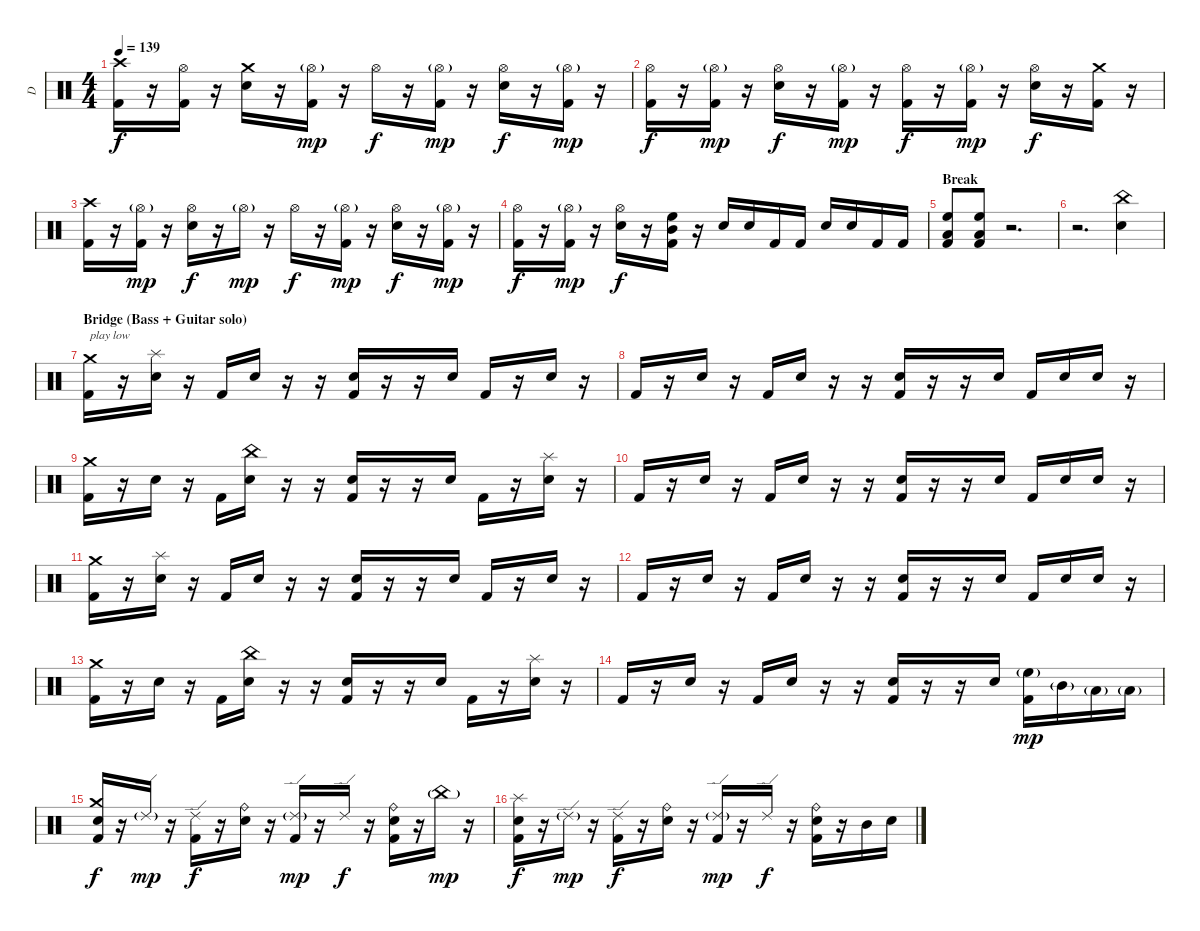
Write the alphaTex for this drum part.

\track ("D" "D") {instrument percussion}
\staff {score}
\articulation defaults
\ts (4 4)
\tempo 139
\clef neutral
\ks c
("Crash high (hit)" "Kick (hit) 2").16{dy f} r.16 ("Hi-Hat (open)" "Kick (hit) 2").16 r.16 ("Crash medium (hit)" "Electric Snare (hit)").16 r.16 ("Hi-Hat (open)"{g} "Kick (hit) 2").16{dy mp} r.16 "Hi-Hat (open)".16{dy f} r.16 ("Hi-Hat (open)"{g} "Kick (hit) 2").16{dy mp} r.16 ("Hi-Hat (open)" "Electric Snare (hit)").16{dy f} r.16 ("Hi-Hat (open)"{g} "Kick (hit) 2").16{dy mp} r.16 |
("Hi-Hat (open)" "Kick (hit) 2").16{dy f} r.16 ("Hi-Hat (open)"{g} "Kick (hit) 2").16{dy mp} r.16 ("Hi-Hat (open)" "Electric Snare (hit)").16{dy f} r.16 ("Hi-Hat (open)"{g} "Kick (hit) 2").16{dy mp} r.16 ("Hi-Hat (open)" "Kick (hit) 2").16{dy f} r.16 ("Hi-Hat (open)"{g} "Kick (hit) 2").16{dy mp} r.16 ("Hi-Hat (open)" "Electric Snare (hit)").16{dy f} r.16 ("Crash medium (hit)" "Kick (hit) 2").16 r.16 |
("Crash high (hit)" "Kick (hit) 2").16 r.16 ("Hi-Hat (open)"{g} "Kick (hit) 2").16{dy mp} r.16 ("Hi-Hat (open)" "Electric Snare (hit)").16{dy f} r.16 "Hi-Hat (open)"{g}.16{dy mp} r.16 "Hi-Hat (open)".16{dy f} r.16 ("Hi-Hat (open)"{g} "Kick (hit) 2").16{dy mp} r.16 ("Hi-Hat (open)" "Electric Snare (hit)").16{dy f} r.16 ("Hi-Hat (open)"{g} "Kick (hit) 2").16{dy mp} r.16 |
("Hi-Hat (open)" "Kick (hit) 2").16{dy f} r.16 ("Hi-Hat (open)"{g} "Kick (hit) 2").16{dy mp} r.16 ("Hi-Hat (open)" "Electric Snare (hit)").16{dy f} r.16 ("High Floor Tom (hit)" "Mid Tom (hit)" "Kick (hit) 2").16 r.16 "Electric Snare (hit)".16 "Electric Snare (hit)".16 "Kick (hit) 2".16 "Kick (hit) 2".16 "Electric Snare (hit)".16 "Electric Snare (hit)".16 "Kick (hit) 2".16 "Kick (hit) 2".16 |
\section ("" "Break")
("High Floor Tom (hit)" "Low Floor Tom (hit)" "Kick (hit) 2").8 ("High Floor Tom (hit)" "Low Floor Tom (hit)" "Kick (hit) 2").8 r.2{d} |
r.2{d} ("China (hit)" "Electric Snare (hit)").4 |
\section ("" "Bridge (Bass + Guitar solo)")
("Crash medium (hit)" "Kick (hit) 2").16{txt "play low" volume 12} r.16 ("Splash (hit)" "Electric Snare (hit)").16 r.16 "Kick (hit) 2".16 "Electric Snare (hit)".16 r.16 r.16 ("Electric Snare (hit)" "Kick (hit) 2").16 r.16 r.16 "Electric Snare (hit)".16 "Kick (hit) 2".16 r.16 "Electric Snare (hit)".16 r.16 |
"Kick (hit) 2".16 r.16 "Electric Snare (hit)".16 r.16 "Kick (hit) 2".16 "Electric Snare (hit)".16 r.16 r.16 ("Electric Snare (hit)" "Kick (hit) 2").16 r.16 r.16 "Electric Snare (hit)".16 "Kick (hit) 2".16 "Electric Snare (hit)".16 "Electric Snare (hit)".16 r.16 |
("Crash medium (hit)" "Kick (hit) 2").16 r.16 "Electric Snare (hit)".16 r.16 "Kick (hit) 2".16 ("China (hit)" "Electric Snare (hit)").16 r.16 r.16 ("Electric Snare (hit)" "Kick (hit) 2").16 r.16 r.16 "Electric Snare (hit)".16 "Kick (hit) 2".16 r.16 ("Splash (hit)" "Electric Snare (hit)").16 r.16 |
"Kick (hit) 2".16 r.16 "Electric Snare (hit)".16 r.16 "Kick (hit) 2".16 "Electric Snare (hit)".16 r.16 r.16 ("Electric Snare (hit)" "Kick (hit) 2").16 r.16 r.16 "Electric Snare (hit)".16 "Kick (hit) 2".16 "Electric Snare (hit)".16 "Electric Snare (hit)".16 r.16 |
("Crash medium (hit)" "Kick (hit) 2").16 r.16 ("Splash (hit)" "Electric Snare (hit)").16 r.16 "Kick (hit) 2".16 "Electric Snare (hit)".16 r.16 r.16 ("Electric Snare (hit)" "Kick (hit) 2").16 r.16 r.16 "Electric Snare (hit)".16 "Kick (hit) 2".16 r.16 "Electric Snare (hit)".16 r.16 |
"Kick (hit) 2".16 r.16 "Electric Snare (hit)".16 r.16 "Kick (hit) 2".16 "Electric Snare (hit)".16 r.16 r.16 ("Electric Snare (hit)" "Kick (hit) 2").16 r.16 r.16 "Electric Snare (hit)".16 "Kick (hit) 2".16 "Electric Snare (hit)".16 "Electric Snare (hit)".16 r.16 |
("Crash medium (hit)" "Kick (hit) 2").16 r.16 "Electric Snare (hit)".16 r.16 "Kick (hit) 2".16 ("China (hit)" "Electric Snare (hit)").16 r.16 r.16 ("Electric Snare (hit)" "Kick (hit) 2").16 r.16 r.16 "Electric Snare (hit)".16 "Kick (hit) 2".16 r.16 ("Splash (hit)" "Electric Snare (hit)").16 r.16 |
"Kick (hit) 2".16 r.16 "Electric Snare (hit)".16 r.16 "Kick (hit) 2".16 "Electric Snare (hit)".16 r.16 r.16 ("Electric Snare (hit)" "Kick (hit) 2").16 r.16 r.16 "Electric Snare (hit)".16 ("High Floor Tom (hit)"{g} "Kick (hit) 2").16{dy mp} "Mid Tom (hit)"{g}.16 "Low Tom (hit)"{g}.16 "Low Floor Tom (hit)"{g}.16 |
("Crash medium (hit)" "Electric Snare (hit)" "Kick (hit) 2").16{dy f} r.16 "Ride (edge) 2"{g}.16{dy mp} r.16 ("Ride (edge) 2" "Kick (hit) 2").16{dy f} r.16 ("Ride (bell)" "Electric Snare (hit)").16 r.16 ("Ride (edge) 2"{g} "Kick (hit) 2").16{dy mp} r.16 "Ride (edge) 2".16{dy f} r.16 ("Ride (bell)" "Electric Snare (hit)" "Kick (hit) 2").16 r.16 "China (hit)"{g}.16{dy mp} r.16 |
("Splash (hit)" "Electric Snare (hit)" "Kick (hit) 2").16{dy f} r.16 "Ride (edge) 2"{g}.16{dy mp} r.16 ("Ride (edge) 2" "Kick (hit) 2").16{dy f} r.16 ("Ride (bell)" "Electric Snare (hit)").16 r.16 ("Ride (edge) 2"{g} "Kick (hit) 2").16{dy mp} r.16 "Ride (edge) 2".16{dy f} r.16 ("Ride (bell)" "Electric Snare (hit)" "Kick (hit) 2").16 r.16 "Mid Tom (hit)".16 "Electric Snare (hit)".16
